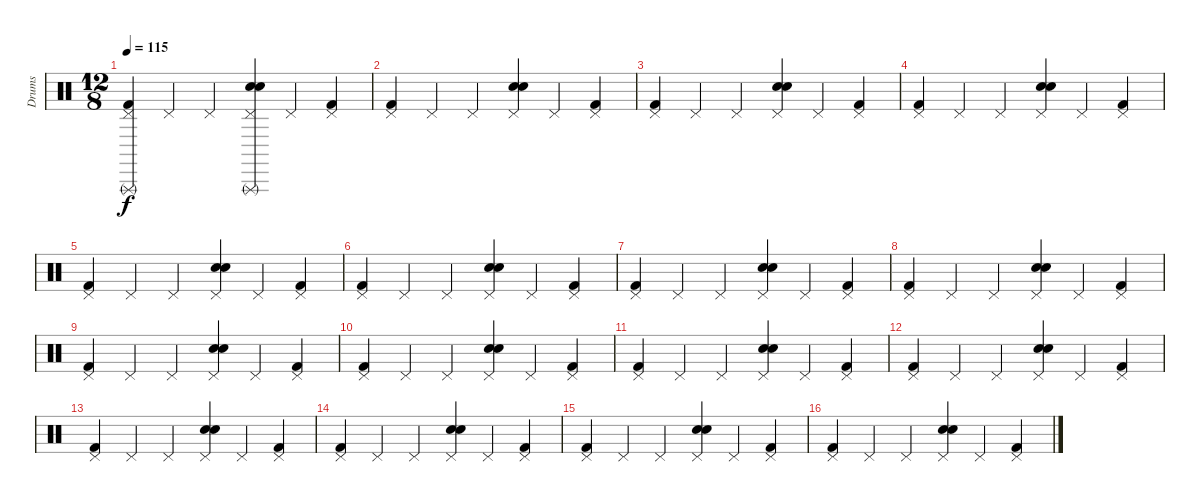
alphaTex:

\track ("Drums" "Drums") {instrument percussion}
\staff {score}
\articulation defaults
\ts (12 8)
\tempo 115
\clef neutral
\ks c
("Triangle (rnute)" "Kick (hit) 2" "Pedal Hi-Hat (hit)").4{dy f} "Pedal Hi-Hat (hit)".4 "Pedal Hi-Hat (hit)".4 ("Triangle (rnute)" "Electric Snare (hit)" "Snare (hit) 2" "Pedal Hi-Hat (hit)").4 "Pedal Hi-Hat (hit)".4 ("Kick (hit) 2" "Pedal Hi-Hat (hit)").4 |
("Kick (hit) 2" "Pedal Hi-Hat (hit)").4 "Pedal Hi-Hat (hit)".4 "Pedal Hi-Hat (hit)".4 ("Electric Snare (hit)" "Snare (hit) 2" "Pedal Hi-Hat (hit)").4 "Pedal Hi-Hat (hit)".4 ("Kick (hit) 2" "Pedal Hi-Hat (hit)").4 |
("Kick (hit) 2" "Pedal Hi-Hat (hit)").4 "Pedal Hi-Hat (hit)".4 "Pedal Hi-Hat (hit)".4 ("Electric Snare (hit)" "Snare (hit) 2" "Pedal Hi-Hat (hit)").4 "Pedal Hi-Hat (hit)".4 ("Kick (hit) 2" "Pedal Hi-Hat (hit)").4 |
("Kick (hit) 2" "Pedal Hi-Hat (hit)").4 "Pedal Hi-Hat (hit)".4 "Pedal Hi-Hat (hit)".4 ("Electric Snare (hit)" "Snare (hit) 2" "Pedal Hi-Hat (hit)").4 "Pedal Hi-Hat (hit)".4 ("Kick (hit) 2" "Pedal Hi-Hat (hit)").4 |
("Kick (hit) 2" "Pedal Hi-Hat (hit)").4 "Pedal Hi-Hat (hit)".4 "Pedal Hi-Hat (hit)".4 ("Electric Snare (hit)" "Snare (hit) 2" "Pedal Hi-Hat (hit)").4 "Pedal Hi-Hat (hit)".4 ("Kick (hit) 2" "Pedal Hi-Hat (hit)").4 |
("Kick (hit) 2" "Pedal Hi-Hat (hit)").4 "Pedal Hi-Hat (hit)".4 "Pedal Hi-Hat (hit)".4 ("Electric Snare (hit)" "Snare (hit) 2" "Pedal Hi-Hat (hit)").4 "Pedal Hi-Hat (hit)".4 ("Kick (hit) 2" "Pedal Hi-Hat (hit)").4 |
("Kick (hit) 2" "Pedal Hi-Hat (hit)").4 "Pedal Hi-Hat (hit)".4 "Pedal Hi-Hat (hit)".4 ("Electric Snare (hit)" "Snare (hit) 2" "Pedal Hi-Hat (hit)").4 "Pedal Hi-Hat (hit)".4 ("Kick (hit) 2" "Pedal Hi-Hat (hit)").4 |
("Kick (hit) 2" "Pedal Hi-Hat (hit)").4 "Pedal Hi-Hat (hit)".4 "Pedal Hi-Hat (hit)".4 ("Electric Snare (hit)" "Snare (hit) 2" "Pedal Hi-Hat (hit)").4 "Pedal Hi-Hat (hit)".4 ("Kick (hit) 2" "Pedal Hi-Hat (hit)").4 |
("Kick (hit) 2" "Pedal Hi-Hat (hit)").4 "Pedal Hi-Hat (hit)".4 "Pedal Hi-Hat (hit)".4 ("Electric Snare (hit)" "Snare (hit) 2" "Pedal Hi-Hat (hit)").4 "Pedal Hi-Hat (hit)".4 ("Kick (hit) 2" "Pedal Hi-Hat (hit)").4 |
("Kick (hit) 2" "Pedal Hi-Hat (hit)").4 "Pedal Hi-Hat (hit)".4 "Pedal Hi-Hat (hit)".4 ("Electric Snare (hit)" "Snare (hit) 2" "Pedal Hi-Hat (hit)").4 "Pedal Hi-Hat (hit)".4 ("Kick (hit) 2" "Pedal Hi-Hat (hit)").4 |
("Kick (hit) 2" "Pedal Hi-Hat (hit)").4 "Pedal Hi-Hat (hit)".4 "Pedal Hi-Hat (hit)".4 ("Electric Snare (hit)" "Snare (hit) 2" "Pedal Hi-Hat (hit)").4 "Pedal Hi-Hat (hit)".4 ("Kick (hit) 2" "Pedal Hi-Hat (hit)").4 |
("Kick (hit) 2" "Pedal Hi-Hat (hit)").4 "Pedal Hi-Hat (hit)".4 "Pedal Hi-Hat (hit)".4 ("Electric Snare (hit)" "Snare (hit) 2" "Pedal Hi-Hat (hit)").4 "Pedal Hi-Hat (hit)".4 ("Kick (hit) 2" "Pedal Hi-Hat (hit)").4 |
("Kick (hit) 2" "Pedal Hi-Hat (hit)").4 "Pedal Hi-Hat (hit)".4 "Pedal Hi-Hat (hit)".4 ("Electric Snare (hit)" "Snare (hit) 2" "Pedal Hi-Hat (hit)").4 "Pedal Hi-Hat (hit)".4 ("Kick (hit) 2" "Pedal Hi-Hat (hit)").4 |
("Kick (hit) 2" "Pedal Hi-Hat (hit)").4 "Pedal Hi-Hat (hit)".4 "Pedal Hi-Hat (hit)".4 ("Electric Snare (hit)" "Snare (hit) 2" "Pedal Hi-Hat (hit)").4 "Pedal Hi-Hat (hit)".4 ("Kick (hit) 2" "Pedal Hi-Hat (hit)").4 |
("Kick (hit) 2" "Pedal Hi-Hat (hit)").4 "Pedal Hi-Hat (hit)".4 "Pedal Hi-Hat (hit)".4 ("Electric Snare (hit)" "Snare (hit) 2" "Pedal Hi-Hat (hit)").4 "Pedal Hi-Hat (hit)".4 ("Kick (hit) 2" "Pedal Hi-Hat (hit)").4 |
("Kick (hit) 2" "Pedal Hi-Hat (hit)").4 "Pedal Hi-Hat (hit)".4 "Pedal Hi-Hat (hit)".4 ("Electric Snare (hit)" "Snare (hit) 2" "Pedal Hi-Hat (hit)").4 "Pedal Hi-Hat (hit)".4 ("Kick (hit) 2" "Pedal Hi-Hat (hit)").4
